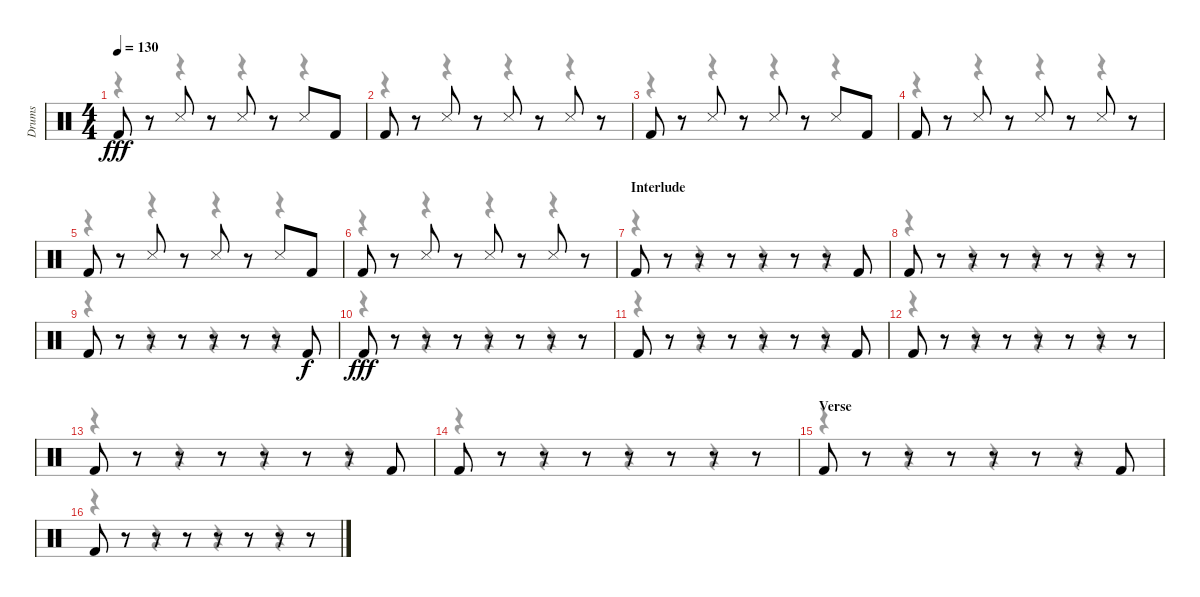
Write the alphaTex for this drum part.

\track ("Drums" "Drums") {instrument percussion}
\staff {score}
\articulation defaults
\voice
\ts (4 4)
\tempo 130
\clef neutral
\ks c "Kick (hit) 2".8{dy fff}
r.8 "Snare (side stick) 3".8 r.8 "Snare (side stick) 3".8 r.8 "Snare (side stick) 3".8 "Kick (hit) 2".8 |
"Kick (hit) 2".8 r.8 "Snare (side stick) 3".8 r.8 "Snare (side stick) 3".8 r.8 "Snare (side stick) 3".8 r.8 |
"Kick (hit) 2".8 r.8 "Snare (side stick) 3".8 r.8 "Snare (side stick) 3".8 r.8 "Snare (side stick) 3".8 "Kick (hit) 2".8 |
"Kick (hit) 2".8 r.8 "Snare (side stick) 3".8 r.8 "Snare (side stick) 3".8 r.8 "Snare (side stick) 3".8 r.8 |
"Kick (hit) 2".8 r.8 "Snare (side stick) 3".8 r.8 "Snare (side stick) 3".8 r.8 "Snare (side stick) 3".8 "Kick (hit) 2".8 |
"Kick (hit) 2".8 r.8 "Snare (side stick) 3".8 r.8 "Snare (side stick) 3".8 r.8 "Snare (side stick) 3".8 r.8 |
\section ("" "Interlude")
"Kick (hit) 2".8 r.8 r.8 r.8 r.8 r.8 r.8 "Kick (hit) 2".8 |
"Kick (hit) 2".8 r.8 r.8 r.8 r.8 r.8 r.8 r.8 |
"Kick (hit) 2".8 r.8 r.8 r.8 r.8 r.8 r.8 "Kick (hit) 2".8{dy f} |
"Kick (hit) 2".8{dy fff} r.8 r.8 r.8 r.8 r.8 r.8 r.8 |
"Kick (hit) 2".8 r.8 r.8 r.8 r.8 r.8 r.8 "Kick (hit) 2".8 |
"Kick (hit) 2".8 r.8 r.8 r.8 r.8 r.8 r.8 r.8 |
"Kick (hit) 2".8 r.8 r.8 r.8 r.8 r.8 r.8 "Kick (hit) 2".8 |
"Kick (hit) 2".8 r.8 r.8 r.8 r.8 r.8 r.8 r.8 |
\section ("" "Verse")
"Kick (hit) 2".8 r.8 r.8 r.8 r.8 r.8 r.8 "Kick (hit) 2".8 |
"Kick (hit) 2".8 r.8 r.8 r.8 r.8 r.8 r.8 r.8
\voice
\clef neutral
\ottava regular
\simile none
\ks c
r.4{dy f} r.4 r.4 r.4 |
r.4 r.4 r.4 r.4 |
r.4 r.4 r.4 r.4 |
r.4 r.4 r.4 r.4 |
r.4 r.4 r.4 r.4 |
r.4 r.4 r.4 r.4 |
r.4 r.4 r.4 r.4 |
r.4 r.4 r.4 r.4 |
r.4 r.4 r.4 r.4 |
r.4 r.4 r.4 r.4 |
r.4 r.4 r.4 r.4 |
r.4 r.4 r.4 r.4 |
r.4 r.4 r.4 r.4 |
r.4 r.4 r.4 r.4 |
r.4 r.4 r.4 r.4 |
r.4 r.4 r.4 r.4
